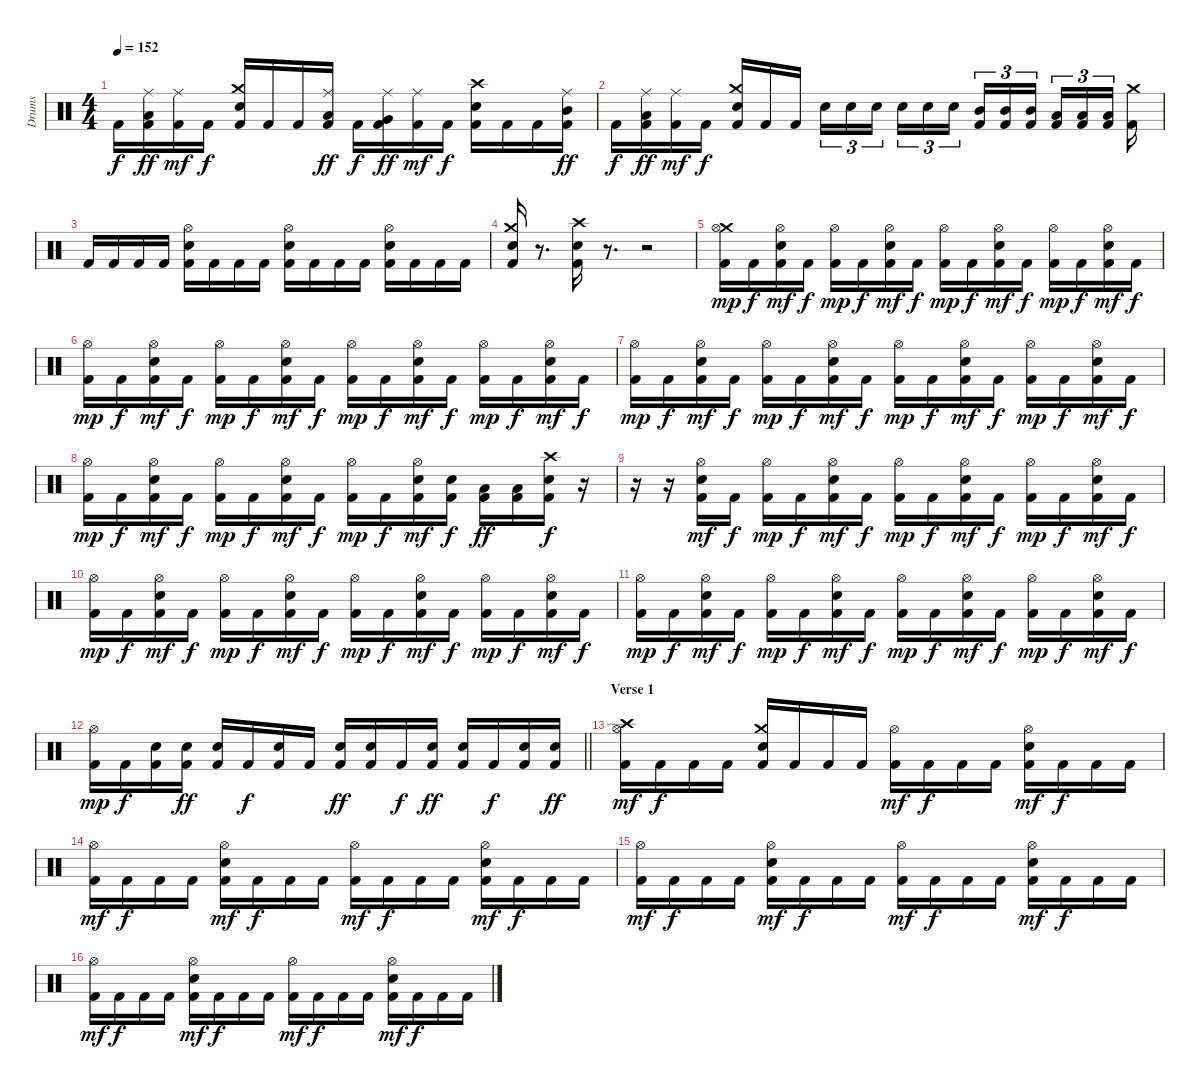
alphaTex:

\track ("Drums" "Drums") {instrument percussion}
\staff {score}
\articulation defaults
\ts (4 4)
\tempo 152
\clef neutral
\ks c "Kick (hit) 2".16{dy f}
("Ride (middle)" "Low Tom (hit)" "Kick (hit) 2").16{dy ff} ("Ride (middle)" "Kick (hit) 2").16{dy mf} "Kick (hit) 2".16{dy f} ("Crash medium (hit)" "Snare (hit) 2" "Kick (hit) 2").16 "Kick (hit) 2".16 "Kick (hit) 2".16 ("Ride (middle)" "Low Tom (hit)" "Kick (hit) 2").16{dy ff} "Kick (hit) 2".16{dy f} ("Ride (middle)" "Very Low Tom (hit)" "Kick (hit) 2").16{dy ff} ("Ride (middle)" "Kick (hit) 2").16{dy mf} "Kick (hit) 2".16{dy f} ("Crash high (hit)" "Snare (hit) 2" "Kick (hit) 2").16 "Kick (hit) 2".16 "Kick (hit) 2".16 ("Ride (middle)" "Mid Tom (hit)" "Kick (hit) 2").16{dy ff} |
"Kick (hit) 2".16{dy f} ("Ride (middle)" "Low Tom (hit)" "Kick (hit) 2").16{dy ff} ("Ride (middle)" "Kick (hit) 2").16{dy mf} "Kick (hit) 2".16{dy f} ("Crash medium (hit)" "Snare (hit) 2" "Kick (hit) 2").16 "Kick (hit) 2".16 "Kick (hit) 2".16 "Snare (hit) 2".16{tu (3 2)} "Snare (hit) 2".16{tu (3 2)} "Snare (hit) 2".16{tu (3 2)} "Snare (hit) 2".16{tu (3 2)} "Snare (hit) 2".16{tu (3 2)} "Snare (hit) 2".16{tu (3 2)} ("Mid Tom (hit)" "Kick (hit) 2").16{tu (3 2)} ("Mid Tom (hit)" "Kick (hit) 2").16{tu (3 2)} ("Mid Tom (hit)" "Kick (hit) 2").16{tu (3 2)} ("Low Tom (hit)" "Kick (hit) 2").16{tu (3 2)} ("Low Tom (hit)" "Kick (hit) 2").16{tu (3 2)} ("Low Tom (hit)" "Kick (hit) 2").16{tu (3 2)} ("Crash medium (hit)" "Kick (hit) 2").16 |
"Kick (hit) 2".16 "Kick (hit) 2".16 "Kick (hit) 2".16 "Kick (hit) 2".16 ("Hi-Hat (open)" "Snare (hit) 2" "Kick (hit) 2").16 "Kick (hit) 2".16 "Kick (hit) 2".16 "Kick (hit) 2".16 ("Hi-Hat (open)" "Snare (hit) 2" "Kick (hit) 2").16 "Kick (hit) 2".16 "Kick (hit) 2".16 "Kick (hit) 2".16 ("Hi-Hat (open)" "Snare (hit) 2" "Kick (hit) 2").16 "Kick (hit) 2".16 "Kick (hit) 2".16 "Kick (hit) 2".16 |
("Crash medium (hit)" "Snare (hit) 2" "Kick (hit) 2").16 r.8{d} ("Crash high (hit)" "Snare (hit) 2" "Kick (hit) 2").16 r.8{d} r.2 |
("Crash medium (hit)" "Hi-Hat (open)" "Kick (hit) 2").16{dy mp} "Kick (hit) 2".16{dy f} ("Hi-Hat (open)" "Snare (hit) 2" "Kick (hit) 2").16{dy mf} "Kick (hit) 2".16{dy f} ("Hi-Hat (open)" "Kick (hit) 2").16{dy mp} "Kick (hit) 2".16{dy f} ("Hi-Hat (open)" "Snare (hit) 2" "Kick (hit) 2").16{dy mf} "Kick (hit) 2".16{dy f} ("Hi-Hat (open)" "Kick (hit) 2").16{dy mp} "Kick (hit) 2".16{dy f} ("Hi-Hat (open)" "Snare (hit) 2" "Kick (hit) 2").16{dy mf} "Kick (hit) 2".16{dy f} ("Hi-Hat (open)" "Kick (hit) 2").16{dy mp} "Kick (hit) 2".16{dy f} ("Hi-Hat (open)" "Snare (hit) 2" "Kick (hit) 2").16{dy mf} "Kick (hit) 2".16{dy f} |
("Hi-Hat (open)" "Kick (hit) 2").16{dy mp} "Kick (hit) 2".16{dy f} ("Hi-Hat (open)" "Snare (hit) 2" "Kick (hit) 2").16{dy mf} "Kick (hit) 2".16{dy f} ("Hi-Hat (open)" "Kick (hit) 2").16{dy mp} "Kick (hit) 2".16{dy f} ("Hi-Hat (open)" "Snare (hit) 2" "Kick (hit) 2").16{dy mf} "Kick (hit) 2".16{dy f} ("Hi-Hat (open)" "Kick (hit) 2").16{dy mp} "Kick (hit) 2".16{dy f} ("Hi-Hat (open)" "Snare (hit) 2" "Kick (hit) 2").16{dy mf} "Kick (hit) 2".16{dy f} ("Hi-Hat (open)" "Kick (hit) 2").16{dy mp} "Kick (hit) 2".16{dy f} ("Hi-Hat (open)" "Snare (hit) 2" "Kick (hit) 2").16{dy mf} "Kick (hit) 2".16{dy f} |
("Hi-Hat (open)" "Kick (hit) 2").16{dy mp} "Kick (hit) 2".16{dy f} ("Hi-Hat (open)" "Snare (hit) 2" "Kick (hit) 2").16{dy mf} "Kick (hit) 2".16{dy f} ("Hi-Hat (open)" "Kick (hit) 2").16{dy mp} "Kick (hit) 2".16{dy f} ("Hi-Hat (open)" "Snare (hit) 2" "Kick (hit) 2").16{dy mf} "Kick (hit) 2".16{dy f} ("Hi-Hat (open)" "Kick (hit) 2").16{dy mp} "Kick (hit) 2".16{dy f} ("Hi-Hat (open)" "Snare (hit) 2" "Kick (hit) 2").16{dy mf} "Kick (hit) 2".16{dy f} ("Hi-Hat (open)" "Kick (hit) 2").16{dy mp} "Kick (hit) 2".16{dy f} ("Hi-Hat (open)" "Snare (hit) 2" "Kick (hit) 2").16{dy mf} "Kick (hit) 2".16{dy f} |
("Hi-Hat (open)" "Kick (hit) 2").16{dy mp} "Kick (hit) 2".16{dy f} ("Hi-Hat (open)" "Snare (hit) 2" "Kick (hit) 2").16{dy mf} "Kick (hit) 2".16{dy f} ("Hi-Hat (open)" "Kick (hit) 2").16{dy mp} "Kick (hit) 2".16{dy f} ("Hi-Hat (open)" "Snare (hit) 2" "Kick (hit) 2").16{dy mf} "Kick (hit) 2".16{dy f} ("Hi-Hat (open)" "Kick (hit) 2").16{dy mp} "Kick (hit) 2".16{dy f} ("Hi-Hat (open)" "Snare (hit) 2" "Kick (hit) 2").16{dy mf} ("Snare (hit) 2" "Kick (hit) 2").16{dy f} ("Low Tom (hit)" "Kick (hit) 2").16{dy ff} ("Low Tom (hit)" "Kick (hit) 2").16 ("Crash high (hit)" "Snare (hit) 2" "Kick (hit) 2").16{dy f} r.16 |
r.16 r.16 ("Hi-Hat (open)" "Snare (hit) 2" "Kick (hit) 2").16{dy mf} "Kick (hit) 2".16{dy f} ("Hi-Hat (open)" "Kick (hit) 2").16{dy mp} "Kick (hit) 2".16{dy f} ("Hi-Hat (open)" "Snare (hit) 2" "Kick (hit) 2").16{dy mf} "Kick (hit) 2".16{dy f} ("Hi-Hat (open)" "Kick (hit) 2").16{dy mp} "Kick (hit) 2".16{dy f} ("Hi-Hat (open)" "Snare (hit) 2" "Kick (hit) 2").16{dy mf} "Kick (hit) 2".16{dy f} ("Hi-Hat (open)" "Kick (hit) 2").16{dy mp} "Kick (hit) 2".16{dy f} ("Hi-Hat (open)" "Snare (hit) 2" "Kick (hit) 2").16{dy mf} "Kick (hit) 2".16{dy f} |
("Hi-Hat (open)" "Kick (hit) 2").16{dy mp} "Kick (hit) 2".16{dy f} ("Hi-Hat (open)" "Snare (hit) 2" "Kick (hit) 2").16{dy mf} "Kick (hit) 2".16{dy f} ("Hi-Hat (open)" "Kick (hit) 2").16{dy mp} "Kick (hit) 2".16{dy f} ("Hi-Hat (open)" "Snare (hit) 2" "Kick (hit) 2").16{dy mf} "Kick (hit) 2".16{dy f} ("Hi-Hat (open)" "Kick (hit) 2").16{dy mp} "Kick (hit) 2".16{dy f} ("Hi-Hat (open)" "Snare (hit) 2" "Kick (hit) 2").16{dy mf} "Kick (hit) 2".16{dy f} ("Hi-Hat (open)" "Kick (hit) 2").16{dy mp} "Kick (hit) 2".16{dy f} ("Hi-Hat (open)" "Snare (hit) 2" "Kick (hit) 2").16{dy mf} "Kick (hit) 2".16{dy f} |
("Hi-Hat (open)" "Kick (hit) 2").16{dy mp} "Kick (hit) 2".16{dy f} ("Hi-Hat (open)" "Snare (hit) 2" "Kick (hit) 2").16{dy mf} "Kick (hit) 2".16{dy f} ("Hi-Hat (open)" "Kick (hit) 2").16{dy mp} "Kick (hit) 2".16{dy f} ("Hi-Hat (open)" "Snare (hit) 2" "Kick (hit) 2").16{dy mf} "Kick (hit) 2".16{dy f} ("Hi-Hat (open)" "Kick (hit) 2").16{dy mp} "Kick (hit) 2".16{dy f} ("Hi-Hat (open)" "Snare (hit) 2" "Kick (hit) 2").16{dy mf} "Kick (hit) 2".16{dy f} ("Hi-Hat (open)" "Kick (hit) 2").16{dy mp} "Kick (hit) 2".16{dy f} ("Hi-Hat (open)" "Snare (hit) 2" "Kick (hit) 2").16{dy mf} "Kick (hit) 2".16{dy f} |
\barLineRight lightlight
("Hi-Hat (open)" "Kick (hit) 2").16{dy mp} "Kick (hit) 2".16{dy f} ("Snare (hit) 2" "Kick (hit) 2").16 ("Snare (hit) 2" "Kick (hit) 2").16{dy ff} ("Snare (hit) 2" "Kick (hit) 2").16 "Kick (hit) 2".16{dy f} ("Snare (hit) 2" "Kick (hit) 2").16 "Kick (hit) 2".16 ("Snare (hit) 2" "Kick (hit) 2").16{dy ff} ("Snare (hit) 2" "Kick (hit) 2").16 "Kick (hit) 2".16{dy f} ("Snare (hit) 2" "Kick (hit) 2").16{dy ff} ("Snare (hit) 2" "Kick (hit) 2").16 "Kick (hit) 2".16{dy f} ("Snare (hit) 2" "Kick (hit) 2").16 ("Snare (hit) 2" "Kick (hit) 2").16{dy ff} |
\section ("" "Verse 1")
("Crash high (hit)" "Hi-Hat (open)" "Kick (hit) 2").16{dy mf} "Kick (hit) 2".16{dy f} "Kick (hit) 2".16 "Kick (hit) 2".16 ("Crash medium (hit)" "Snare (hit) 2" "Kick (hit) 2").16 "Kick (hit) 2".16 "Kick (hit) 2".16 "Kick (hit) 2".16 ("Hi-Hat (open)" "Kick (hit) 2").16{dy mf} "Kick (hit) 2".16{dy f} "Kick (hit) 2".16 "Kick (hit) 2".16 ("Hi-Hat (open)" "Snare (hit) 2" "Kick (hit) 2").16{dy mf} "Kick (hit) 2".16{dy f} "Kick (hit) 2".16 "Kick (hit) 2".16 |
("Hi-Hat (open)" "Kick (hit) 2").16{dy mf} "Kick (hit) 2".16{dy f} "Kick (hit) 2".16 "Kick (hit) 2".16 ("Hi-Hat (open)" "Snare (hit) 2" "Kick (hit) 2").16{dy mf} "Kick (hit) 2".16{dy f} "Kick (hit) 2".16 "Kick (hit) 2".16 ("Hi-Hat (open)" "Kick (hit) 2").16{dy mf} "Kick (hit) 2".16{dy f} "Kick (hit) 2".16 "Kick (hit) 2".16 ("Hi-Hat (open)" "Snare (hit) 2" "Kick (hit) 2").16{dy mf} "Kick (hit) 2".16{dy f} "Kick (hit) 2".16 "Kick (hit) 2".16 |
("Hi-Hat (open)" "Kick (hit) 2").16{dy mf} "Kick (hit) 2".16{dy f} "Kick (hit) 2".16 "Kick (hit) 2".16 ("Hi-Hat (open)" "Snare (hit) 2" "Kick (hit) 2").16{dy mf} "Kick (hit) 2".16{dy f} "Kick (hit) 2".16 "Kick (hit) 2".16 ("Hi-Hat (open)" "Kick (hit) 2").16{dy mf} "Kick (hit) 2".16{dy f} "Kick (hit) 2".16 "Kick (hit) 2".16 ("Hi-Hat (open)" "Snare (hit) 2" "Kick (hit) 2").16{dy mf} "Kick (hit) 2".16{dy f} "Kick (hit) 2".16 "Kick (hit) 2".16 |
("Hi-Hat (open)" "Kick (hit) 2").16{dy mf} "Kick (hit) 2".16{dy f} "Kick (hit) 2".16 "Kick (hit) 2".16 ("Hi-Hat (open)" "Snare (hit) 2" "Kick (hit) 2").16{dy mf} "Kick (hit) 2".16{dy f} "Kick (hit) 2".16 "Kick (hit) 2".16 ("Hi-Hat (open)" "Kick (hit) 2").16{dy mf} "Kick (hit) 2".16{dy f} "Kick (hit) 2".16 "Kick (hit) 2".16 ("Hi-Hat (open)" "Snare (hit) 2" "Kick (hit) 2").16{dy mf} "Kick (hit) 2".16{dy f} "Kick (hit) 2".16 "Kick (hit) 2".16
